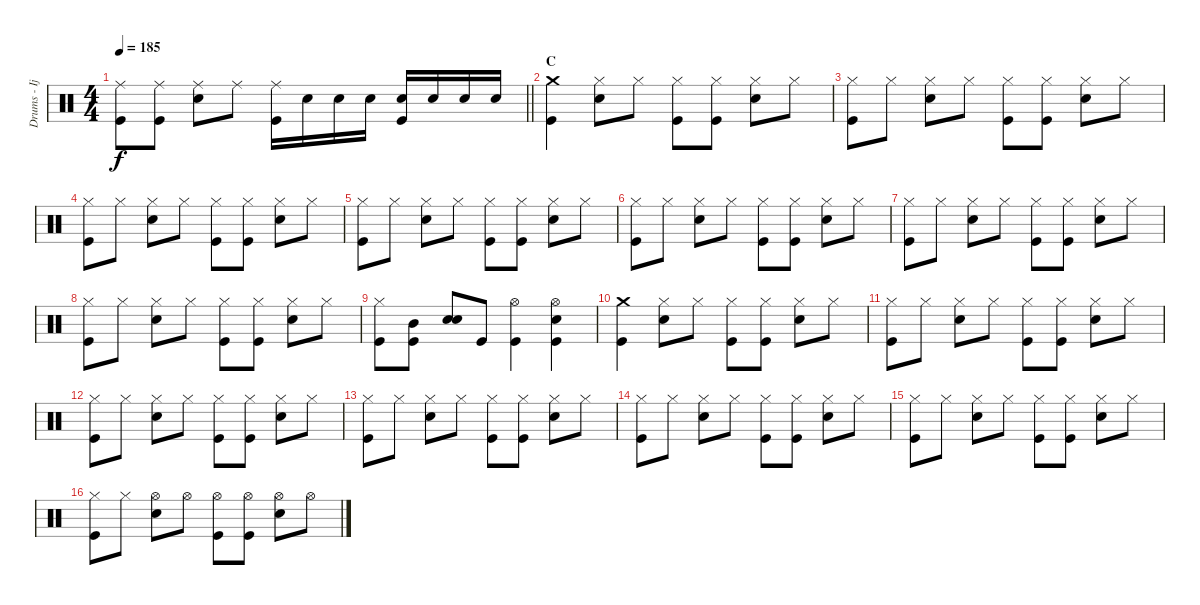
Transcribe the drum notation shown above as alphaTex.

\track ("Drums - Ijichi" "Drums - Ij") {instrument percussion}
\staff {score}
\articulation defaults
\ts (4 4)
\tempo 185
\clef neutral
\barLineRight lightlight
\ks c
("Ride (middle)" "Kick (hit)").8{dy f} ("Ride (middle)" "Kick (hit)").8 ("Ride (middle)" "Electric Snare (hit)").8 "Ride (middle)".8 ("Ride (middle)" "Kick (hit)").16 "Electric Snare (hit)".16 "Electric Snare (hit)".16 "Electric Snare (hit)".16 ("Electric Snare (hit)" "Kick (hit)").16 "Electric Snare (hit)".16 "Electric Snare (hit)".16 "Electric Snare (hit)".16 |
\section ("" "C")
("Crash medium (hit)" "Kick (hit)").4 ("Hi-Hat (closed)" "Electric Snare (hit)").8 "Hi-Hat (closed)".8 ("Hi-Hat (closed)" "Kick (hit)").8 ("Hi-Hat (closed)" "Kick (hit)").8 ("Hi-Hat (closed)" "Electric Snare (hit)").8 "Hi-Hat (closed)".8 |
("Hi-Hat (closed)" "Kick (hit)").8 "Hi-Hat (closed)".8 ("Hi-Hat (closed)" "Electric Snare (hit)").8 "Hi-Hat (closed)".8 ("Hi-Hat (closed)" "Kick (hit)").8 ("Hi-Hat (closed)" "Kick (hit)").8 ("Hi-Hat (closed)" "Electric Snare (hit)").8 "Hi-Hat (closed)".8 |
("Hi-Hat (closed)" "Kick (hit)").8 "Hi-Hat (closed)".8 ("Hi-Hat (closed)" "Electric Snare (hit)").8 "Hi-Hat (closed)".8 ("Hi-Hat (closed)" "Kick (hit)").8 ("Hi-Hat (closed)" "Kick (hit)").8 ("Hi-Hat (closed)" "Electric Snare (hit)").8 "Hi-Hat (closed)".8 |
("Hi-Hat (closed)" "Kick (hit)").8 "Hi-Hat (closed)".8 ("Hi-Hat (closed)" "Electric Snare (hit)").8 "Hi-Hat (closed)".8 ("Hi-Hat (closed)" "Kick (hit)").8 ("Hi-Hat (closed)" "Kick (hit)").8 ("Hi-Hat (closed)" "Electric Snare (hit)").8 "Hi-Hat (closed)".8 |
("Hi-Hat (closed)" "Kick (hit)").8 "Hi-Hat (closed)".8 ("Hi-Hat (closed)" "Electric Snare (hit)").8 "Hi-Hat (closed)".8 ("Hi-Hat (closed)" "Kick (hit)").8 ("Hi-Hat (closed)" "Kick (hit)").8 ("Hi-Hat (closed)" "Electric Snare (hit)").8 "Hi-Hat (closed)".8 |
("Hi-Hat (closed)" "Kick (hit)").8 "Hi-Hat (closed)".8 ("Hi-Hat (closed)" "Electric Snare (hit)").8 "Hi-Hat (closed)".8 ("Hi-Hat (closed)" "Kick (hit)").8 ("Hi-Hat (closed)" "Kick (hit)").8 ("Hi-Hat (closed)" "Electric Snare (hit)").8 "Hi-Hat (closed)".8 |
("Hi-Hat (closed)" "Kick (hit)").8 "Hi-Hat (closed)".8 ("Hi-Hat (closed)" "Electric Snare (hit)").8 "Hi-Hat (closed)".8 ("Hi-Hat (closed)" "Kick (hit)").8 ("Hi-Hat (closed)" "Kick (hit)").8 ("Hi-Hat (closed)" "Electric Snare (hit)").8 "Hi-Hat (closed)".8 |
("Hi-Hat (closed)" "Kick (hit)").8 ("Mid Tom (hit)" "Kick (hit)").8 ("Electric Snare (hit)" "Electric Snare (hit)").8 "Kick (hit)".8 ("Hi-Hat (open)" "Kick (hit)").4 ("Hi-Hat (open)" "Electric Snare (hit)" "Kick (hit)").4 |
("Crash medium (hit)" "Kick (hit)").4 ("Hi-Hat (closed)" "Electric Snare (hit)").8 "Hi-Hat (closed)".8 ("Hi-Hat (closed)" "Kick (hit)").8 ("Hi-Hat (closed)" "Kick (hit)").8 ("Hi-Hat (closed)" "Electric Snare (hit)").8 "Hi-Hat (closed)".8 |
("Hi-Hat (closed)" "Kick (hit)").8 "Hi-Hat (closed)".8 ("Hi-Hat (closed)" "Electric Snare (hit)").8 "Hi-Hat (closed)".8 ("Hi-Hat (closed)" "Kick (hit)").8 ("Hi-Hat (closed)" "Kick (hit)").8 ("Hi-Hat (closed)" "Electric Snare (hit)").8 "Hi-Hat (closed)".8 |
("Hi-Hat (closed)" "Kick (hit)").8 "Hi-Hat (closed)".8 ("Hi-Hat (closed)" "Electric Snare (hit)").8 "Hi-Hat (closed)".8 ("Hi-Hat (closed)" "Kick (hit)").8 ("Hi-Hat (closed)" "Kick (hit)").8 ("Hi-Hat (closed)" "Electric Snare (hit)").8 "Hi-Hat (closed)".8 |
("Hi-Hat (closed)" "Kick (hit)").8 "Hi-Hat (closed)".8 ("Hi-Hat (closed)" "Electric Snare (hit)").8 "Hi-Hat (closed)".8 ("Hi-Hat (closed)" "Kick (hit)").8 ("Hi-Hat (closed)" "Kick (hit)").8 ("Hi-Hat (closed)" "Electric Snare (hit)").8 "Hi-Hat (closed)".8 |
("Hi-Hat (closed)" "Kick (hit)").8 "Hi-Hat (closed)".8 ("Hi-Hat (closed)" "Electric Snare (hit)").8 "Hi-Hat (closed)".8 ("Hi-Hat (closed)" "Kick (hit)").8 ("Hi-Hat (closed)" "Kick (hit)").8 ("Hi-Hat (closed)" "Electric Snare (hit)").8 "Hi-Hat (closed)".8 |
("Hi-Hat (closed)" "Kick (hit)").8 "Hi-Hat (closed)".8 ("Hi-Hat (closed)" "Electric Snare (hit)").8 "Hi-Hat (closed)".8 ("Hi-Hat (closed)" "Kick (hit)").8 ("Hi-Hat (closed)" "Kick (hit)").8 ("Hi-Hat (closed)" "Electric Snare (hit)").8 "Hi-Hat (closed)".8 |
("Hi-Hat (closed)" "Kick (hit)").8 "Hi-Hat (closed)".8 ("Hi-Hat (open)" "Electric Snare (hit)").8 "Hi-Hat (open)".8 ("Hi-Hat (open)" "Kick (hit)").8 ("Hi-Hat (open)" "Kick (hit)").8 ("Hi-Hat (open)" "Electric Snare (hit)").8 "Hi-Hat (open)".8
